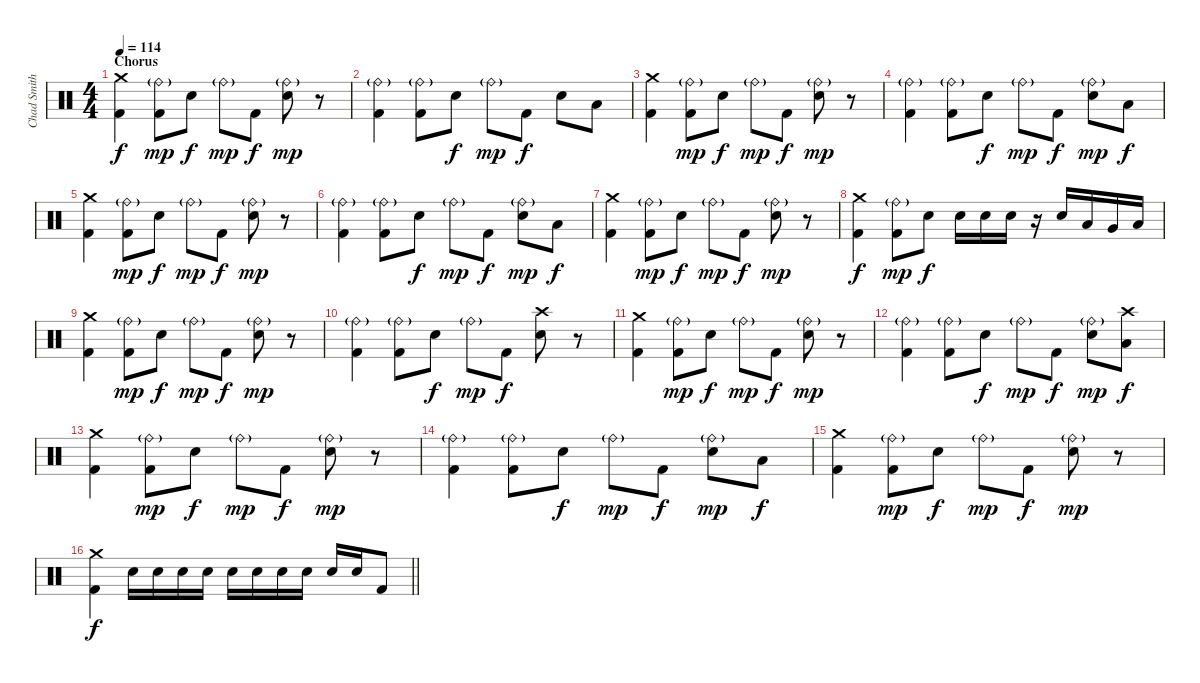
\track ("Chad Smith" "Chad Smith") {instrument percussion}
\staff {score}
\articulation defaults
\ts (4 4)
\section ("" "Chorus")
\tempo 114
\clef neutral
\ks c
("Crash medium (hit)" "Kick (hit) 2").4{dy f} ("Ride (bell)"{g} "Kick (hit) 2").8{dy mp} "Snare (hit) 2".8{dy f} "Ride (bell)"{g}.8{dy mp} "Kick (hit) 2".8{dy f} ("Ride (bell)"{g} "Snare (hit) 2").8{dy mp} r.8 |
("Ride (bell)"{g} "Kick (hit) 2").4 ("Ride (bell)"{g} "Kick (hit) 2").8 "Snare (hit) 2".8{dy f} "Ride (bell)"{g}.8{dy mp} "Kick (hit) 2".8{dy f} "Snare (hit) 2".8 "Low Floor Tom (hit)".8 |
("Crash medium (hit)" "Kick (hit) 2").4 ("Ride (bell)"{g} "Kick (hit) 2").8{dy mp} "Snare (hit) 2".8{dy f} "Ride (bell)"{g}.8{dy mp} "Kick (hit) 2".8{dy f} ("Ride (bell)"{g} "Snare (hit) 2").8{dy mp} r.8 |
("Ride (bell)"{g} "Kick (hit) 2").4 ("Ride (bell)"{g} "Kick (hit) 2").8 "Snare (hit) 2".8{dy f} "Ride (bell)"{g}.8{dy mp} "Kick (hit) 2".8{dy f} ("Ride (bell)"{g} "Snare (hit) 2").8{dy mp} "Low Floor Tom (hit)".8{dy f} |
("Crash medium (hit)" "Kick (hit) 2").4 ("Ride (bell)"{g} "Kick (hit) 2").8{dy mp} "Snare (hit) 2".8{dy f} "Ride (bell)"{g}.8{dy mp} "Kick (hit) 2".8{dy f} ("Ride (bell)"{g} "Snare (hit) 2").8{dy mp} r.8 |
("Ride (bell)"{g} "Kick (hit) 2").4 ("Ride (bell)"{g} "Kick (hit) 2").8 "Snare (hit) 2".8{dy f} "Ride (bell)"{g}.8{dy mp} "Kick (hit) 2".8{dy f} ("Ride (bell)"{g} "Snare (hit) 2").8{dy mp} "Low Floor Tom (hit)".8{dy f} |
("Crash medium (hit)" "Kick (hit) 2").4 ("Ride (bell)"{g} "Kick (hit) 2").8{dy mp} "Snare (hit) 2".8{dy f} "Ride (bell)"{g}.8{dy mp} "Kick (hit) 2".8{dy f} ("Ride (bell)"{g} "Snare (hit) 2").8{dy mp} r.8 |
("Crash medium (hit)" "Kick (hit) 2").4{dy f} ("Ride (bell)"{g} "Kick (hit) 2").8{dy mp} "Snare (hit) 2".8{dy f} "Snare (hit) 2".16 "Snare (hit) 2".16 "Snare (hit) 2".16 r.16 "Snare (hit) 2".16 "Low Tom (hit)".16 "Very Low Tom (hit)".16 "Low Floor Tom (hit)".16 |
("Crash medium (hit)" "Kick (hit) 2").4 ("Ride (bell)"{g} "Kick (hit) 2").8{dy mp} "Snare (hit) 2".8{dy f} "Ride (bell)"{g}.8{dy mp} "Kick (hit) 2".8{dy f} ("Ride (bell)"{g} "Snare (hit) 2").8{dy mp} r.8 |
("Ride (bell)"{g} "Kick (hit) 2").4 ("Ride (bell)"{g} "Kick (hit) 2").8 "Snare (hit) 2".8{dy f} "Ride (bell)"{g}.8{dy mp} "Kick (hit) 2".8{dy f} ("Crash high (hit)" "Snare (hit) 2").8 r.8 |
("Crash medium (hit)" "Kick (hit) 2").4 ("Ride (bell)"{g} "Kick (hit) 2").8{dy mp} "Snare (hit) 2".8{dy f} "Ride (bell)"{g}.8{dy mp} "Kick (hit) 2".8{dy f} ("Ride (bell)"{g} "Snare (hit) 2").8{dy mp} r.8 |
("Ride (bell)"{g} "Kick (hit) 2").4 ("Ride (bell)"{g} "Kick (hit) 2").8 "Snare (hit) 2".8{dy f} "Ride (bell)"{g}.8{dy mp} "Kick (hit) 2".8{dy f} ("Ride (bell)"{g} "Snare (hit) 2").8{dy mp} ("Crash high (hit)" "Low Floor Tom (hit)").8{dy f} |
("Crash medium (hit)" "Kick (hit) 2").4 ("Ride (bell)"{g} "Kick (hit) 2").8{dy mp} "Snare (hit) 2".8{dy f} "Ride (bell)"{g}.8{dy mp} "Kick (hit) 2".8{dy f} ("Ride (bell)"{g} "Snare (hit) 2").8{dy mp} r.8 |
("Ride (bell)"{g} "Kick (hit) 2").4 ("Ride (bell)"{g} "Kick (hit) 2").8 "Snare (hit) 2".8{dy f} "Ride (bell)"{g}.8{dy mp} "Kick (hit) 2".8{dy f} ("Ride (bell)"{g} "Snare (hit) 2").8{dy mp} "Low Floor Tom (hit)".8{dy f} |
("Crash medium (hit)" "Kick (hit) 2").4 ("Ride (bell)"{g} "Kick (hit) 2").8{dy mp} "Snare (hit) 2".8{dy f} "Ride (bell)"{g}.8{dy mp} "Kick (hit) 2".8{dy f} ("Ride (bell)"{g} "Snare (hit) 2").8{dy mp} r.8 |
\barLineRight lightlight
("Crash medium (hit)" "Kick (hit) 2").4{dy f} "Electric Snare (hit)".16 "Electric Snare (hit)".16 "Electric Snare (hit)".16 "Electric Snare (hit)".16 "Electric Snare (hit)".16 "Electric Snare (hit)".16 "Electric Snare (hit)".16 "Electric Snare (hit)".16 "Electric Snare (hit)".16 "Electric Snare (hit)".16 "Kick (hit) 2".8
